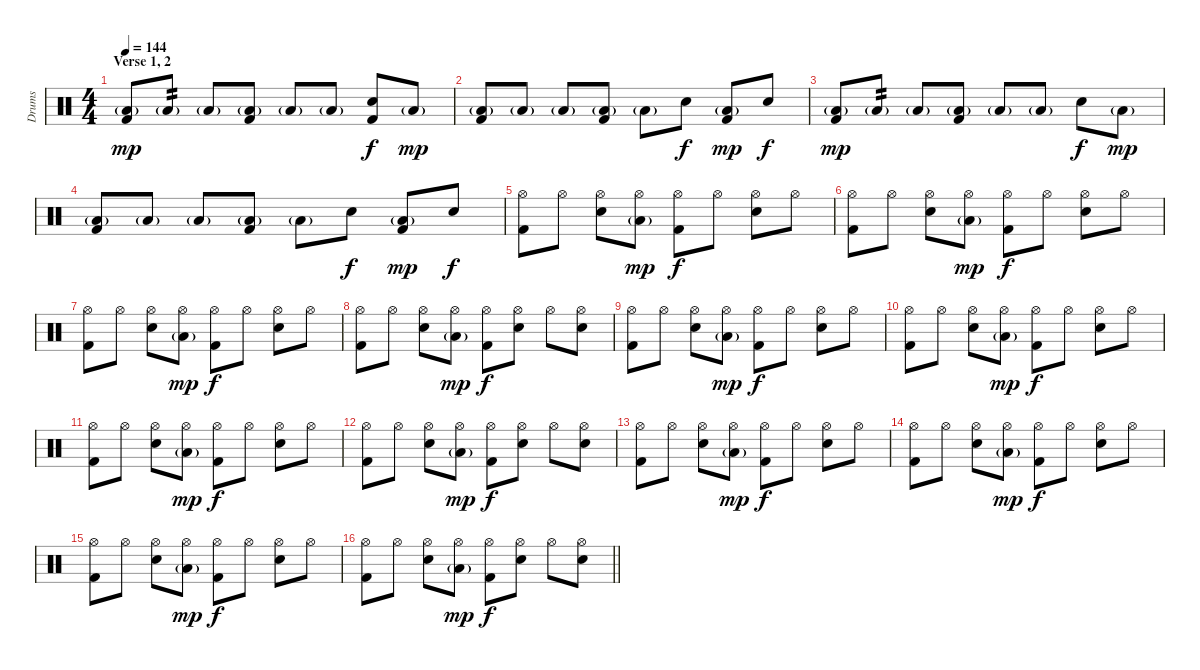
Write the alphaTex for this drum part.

\track ("Drums" "Drums") {instrument percussion}
\staff {score}
\articulation defaults
\ts (4 4)
\section ("" "Verse 1, 2")
\tempo 144
\clef neutral
\ks c
("Low Floor Tom (hit)"{g} "Kick (hit) 2").8{dy mp} "Low Floor Tom (hit)"{g}.8{tp 2} "Low Floor Tom (hit)"{g}.8 ("Low Floor Tom (hit)"{g} "Kick (hit) 2").8 "Low Floor Tom (hit)"{g}.8 "Low Floor Tom (hit)"{g}.8 ("Snare (hit) 2" "Kick (hit) 2").8{dy f} "Low Floor Tom (hit)"{g}.8{dy mp} |
("Low Floor Tom (hit)"{g} "Kick (hit) 2").8 "Low Floor Tom (hit)"{g}.8 "Low Floor Tom (hit)"{g}.8 ("Low Floor Tom (hit)"{g} "Kick (hit) 2").8 "Low Floor Tom (hit)"{g}.8 "Snare (hit) 2".8{dy f} ("Low Floor Tom (hit)"{g} "Kick (hit) 2").8{dy mp} "Snare (hit) 2".8{dy f} |
("Low Floor Tom (hit)"{g} "Kick (hit) 2").8{dy mp} "Low Floor Tom (hit)"{g}.8{tp 2} "Low Floor Tom (hit)"{g}.8 ("Low Floor Tom (hit)"{g} "Kick (hit) 2").8 "Low Floor Tom (hit)"{g}.8 "Low Floor Tom (hit)"{g}.8 "Snare (hit) 2".8{dy f} "Low Floor Tom (hit)"{g}.8{dy mp} |
("Low Floor Tom (hit)"{g} "Kick (hit) 2").8 "Low Floor Tom (hit)"{g}.8 "Low Floor Tom (hit)"{g}.8 ("Low Floor Tom (hit)"{g} "Kick (hit) 2").8 "Low Floor Tom (hit)"{g}.8 "Snare (hit) 2".8{dy f} ("Low Floor Tom (hit)"{g} "Kick (hit) 2").8{dy mp} "Snare (hit) 2".8{dy f} |
("Hi-Hat (open)" "Kick (hit) 2").8 "Hi-Hat (open)".8 ("Hi-Hat (open)" "Snare (hit) 2").8 ("Hi-Hat (open)" "Low Floor Tom (hit)"{g}).8{dy mp} ("Hi-Hat (open)" "Kick (hit) 2").8{dy f} "Hi-Hat (open)".8 ("Hi-Hat (open)" "Snare (hit) 2").8 "Hi-Hat (open)".8 |
("Hi-Hat (open)" "Kick (hit) 2").8 "Hi-Hat (open)".8 ("Hi-Hat (open)" "Snare (hit) 2").8 ("Hi-Hat (open)" "Low Floor Tom (hit)"{g}).8{dy mp} ("Hi-Hat (open)" "Kick (hit) 2").8{dy f} "Hi-Hat (open)".8 ("Hi-Hat (open)" "Snare (hit) 2").8 "Hi-Hat (open)".8 |
("Hi-Hat (open)" "Kick (hit) 2").8 "Hi-Hat (open)".8 ("Hi-Hat (open)" "Snare (hit) 2").8 ("Hi-Hat (open)" "Low Floor Tom (hit)"{g}).8{dy mp} ("Hi-Hat (open)" "Kick (hit) 2").8{dy f} "Hi-Hat (open)".8 ("Hi-Hat (open)" "Snare (hit) 2").8 "Hi-Hat (open)".8 |
("Hi-Hat (open)" "Kick (hit) 2").8 "Hi-Hat (open)".8 ("Hi-Hat (open)" "Snare (hit) 2").8 ("Hi-Hat (open)" "Low Floor Tom (hit)"{g}).8{dy mp} ("Hi-Hat (open)" "Kick (hit) 2").8{dy f} ("Hi-Hat (open)" "Snare (hit) 2").8 "Hi-Hat (open)".8 ("Hi-Hat (open)" "Snare (hit) 2").8 |
("Hi-Hat (open)" "Kick (hit) 2").8 "Hi-Hat (open)".8 ("Hi-Hat (open)" "Snare (hit) 2").8 ("Hi-Hat (open)" "Low Floor Tom (hit)"{g}).8{dy mp} ("Hi-Hat (open)" "Kick (hit) 2").8{dy f} "Hi-Hat (open)".8 ("Hi-Hat (open)" "Snare (hit) 2").8 "Hi-Hat (open)".8 |
("Hi-Hat (open)" "Kick (hit) 2").8 "Hi-Hat (open)".8 ("Hi-Hat (open)" "Snare (hit) 2").8 ("Hi-Hat (open)" "Low Floor Tom (hit)"{g}).8{dy mp} ("Hi-Hat (open)" "Kick (hit) 2").8{dy f} "Hi-Hat (open)".8 ("Hi-Hat (open)" "Snare (hit) 2").8 "Hi-Hat (open)".8 |
("Hi-Hat (open)" "Kick (hit) 2").8 "Hi-Hat (open)".8 ("Hi-Hat (open)" "Snare (hit) 2").8 ("Hi-Hat (open)" "Low Floor Tom (hit)"{g}).8{dy mp} ("Hi-Hat (open)" "Kick (hit) 2").8{dy f} "Hi-Hat (open)".8 ("Hi-Hat (open)" "Snare (hit) 2").8 "Hi-Hat (open)".8 |
("Hi-Hat (open)" "Kick (hit) 2").8 "Hi-Hat (open)".8 ("Hi-Hat (open)" "Snare (hit) 2").8 ("Hi-Hat (open)" "Low Floor Tom (hit)"{g}).8{dy mp} ("Hi-Hat (open)" "Kick (hit) 2").8{dy f} ("Hi-Hat (open)" "Snare (hit) 2").8 "Hi-Hat (open)".8 ("Hi-Hat (open)" "Snare (hit) 2").8 |
("Hi-Hat (open)" "Kick (hit) 2").8 "Hi-Hat (open)".8 ("Hi-Hat (open)" "Snare (hit) 2").8 ("Hi-Hat (open)" "Low Floor Tom (hit)"{g}).8{dy mp} ("Hi-Hat (open)" "Kick (hit) 2").8{dy f} "Hi-Hat (open)".8 ("Hi-Hat (open)" "Snare (hit) 2").8 "Hi-Hat (open)".8 |
("Hi-Hat (open)" "Kick (hit) 2").8 "Hi-Hat (open)".8 ("Hi-Hat (open)" "Snare (hit) 2").8 ("Hi-Hat (open)" "Low Floor Tom (hit)"{g}).8{dy mp} ("Hi-Hat (open)" "Kick (hit) 2").8{dy f} "Hi-Hat (open)".8 ("Hi-Hat (open)" "Snare (hit) 2").8 "Hi-Hat (open)".8 |
("Hi-Hat (open)" "Kick (hit) 2").8 "Hi-Hat (open)".8 ("Hi-Hat (open)" "Snare (hit) 2").8 ("Hi-Hat (open)" "Low Floor Tom (hit)"{g}).8{dy mp} ("Hi-Hat (open)" "Kick (hit) 2").8{dy f} "Hi-Hat (open)".8 ("Hi-Hat (open)" "Snare (hit) 2").8 "Hi-Hat (open)".8 |
\barLineRight lightlight
("Hi-Hat (open)" "Kick (hit) 2").8 "Hi-Hat (open)".8 ("Hi-Hat (open)" "Snare (hit) 2").8 ("Hi-Hat (open)" "Low Floor Tom (hit)"{g}).8{dy mp} ("Hi-Hat (open)" "Kick (hit) 2").8{dy f} ("Hi-Hat (open)" "Snare (hit) 2").8 "Hi-Hat (open)".8 ("Hi-Hat (open)" "Snare (hit) 2").8
